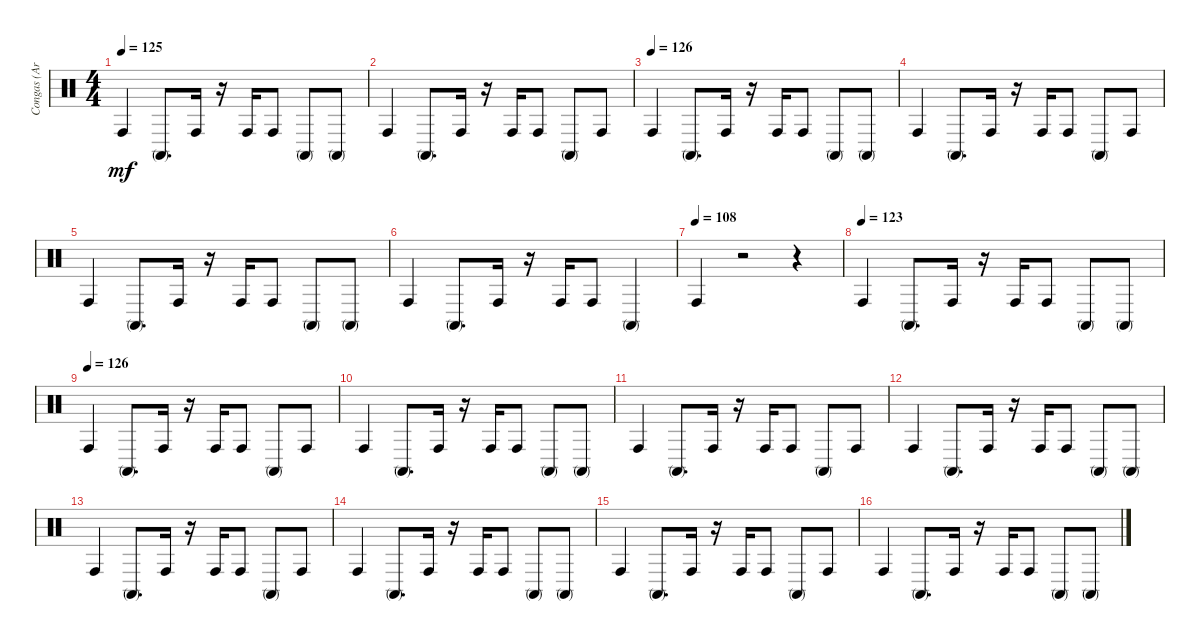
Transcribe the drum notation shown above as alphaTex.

\track ("Congas (Arthur Jenkins)" "Congas (Ar") {instrument percussion}
\staff {score}
\articulation defaults
\ts (4 4)
\tempo 125
\clef neutral
\ks c "Conga high (hit)".4{dy mf} "Conga high (mute)".8{d} "Conga high (hit)".16
r.16 "Conga high (hit)".16 "Conga high (hit)".8 "Conga high (mute)".8 "Conga high (mute)".8 |
"Conga high (hit)".4 "Conga high (mute)".8{d} "Conga high (hit)".16 r.16 "Conga high (hit)".16 "Conga high (hit)".8 "Conga high (mute)".8 "Conga high (hit)".8 |
\tempo (126)
"Conga high (hit)".4 "Conga high (mute)".8{d} "Conga high (hit)".16 r.16 "Conga high (hit)".16 "Conga high (hit)".8 "Conga high (mute)".8 "Conga high (mute)".8 |
"Conga high (hit)".4 "Conga high (mute)".8{d} "Conga high (hit)".16 r.16 "Conga high (hit)".16 "Conga high (hit)".8 "Conga high (mute)".8 "Conga high (hit)".8 |
"Conga high (hit)".4 "Conga high (mute)".8{d} "Conga high (hit)".16 r.16 "Conga high (hit)".16 "Conga high (hit)".8 "Conga high (mute)".8 "Conga high (mute)".8 |
"Conga high (hit)".4 "Conga high (mute)".8{d} "Conga high (hit)".16 r.16 "Conga high (hit)".16 "Conga high (hit)".8 "Conga high (mute)".4 |
\tempo (108)
"Conga high (hit)".4 r.2 r.4 |
\tempo (123)
"Conga high (hit)".4 "Conga high (mute)".8{d} "Conga high (hit)".16 r.16 "Conga high (hit)".16 "Conga high (hit)".8 "Conga high (mute)".8 "Conga high (mute)".8 |
\tempo (126)
"Conga high (hit)".4 "Conga high (mute)".8{d} "Conga high (hit)".16 r.16 "Conga high (hit)".16 "Conga high (hit)".8 "Conga high (mute)".8 "Conga high (hit)".8 |
"Conga high (hit)".4 "Conga high (mute)".8{d} "Conga high (hit)".16 r.16 "Conga high (hit)".16 "Conga high (hit)".8 "Conga high (mute)".8 "Conga high (mute)".8 |
"Conga high (hit)".4 "Conga high (mute)".8{d} "Conga high (hit)".16 r.16 "Conga high (hit)".16 "Conga high (hit)".8 "Conga high (mute)".8 "Conga high (hit)".8 |
"Conga high (hit)".4 "Conga high (mute)".8{d} "Conga high (hit)".16 r.16 "Conga high (hit)".16 "Conga high (hit)".8 "Conga high (mute)".8 "Conga high (mute)".8 |
"Conga high (hit)".4 "Conga high (mute)".8{d} "Conga high (hit)".16 r.16 "Conga high (hit)".16 "Conga high (hit)".8 "Conga high (mute)".8 "Conga high (hit)".8 |
"Conga high (hit)".4 "Conga high (mute)".8{d} "Conga high (hit)".16 r.16 "Conga high (hit)".16 "Conga high (hit)".8 "Conga high (mute)".8 "Conga high (mute)".8 |
"Conga high (hit)".4 "Conga high (mute)".8{d} "Conga high (hit)".16 r.16 "Conga high (hit)".16 "Conga high (hit)".8 "Conga high (mute)".8 "Conga high (hit)".8 |
"Conga high (hit)".4 "Conga high (mute)".8{d} "Conga high (hit)".16 r.16 "Conga high (hit)".16 "Conga high (hit)".8 "Conga high (mute)".8 "Conga high (mute)".8
